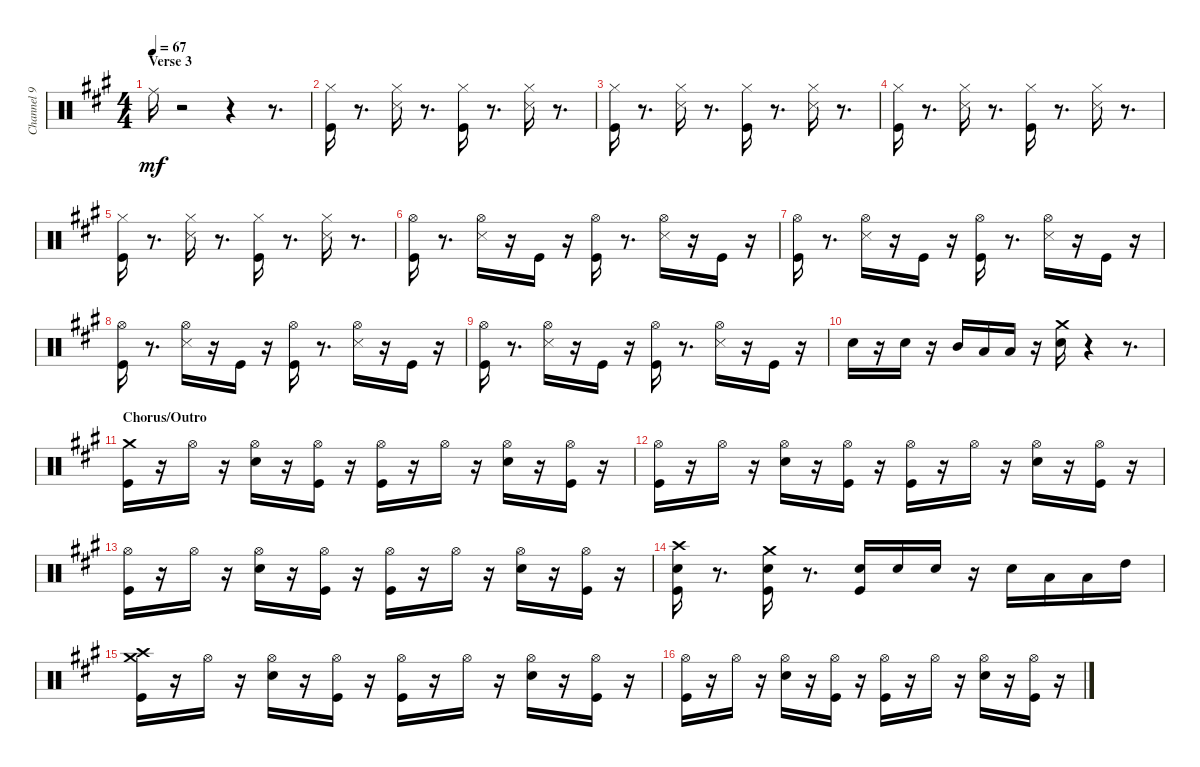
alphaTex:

\track ("Channel 9" "Channel 9") {instrument percussion}
\staff {score}
\articulation defaults
\ts (4 4)
\section ("" "Verse 3")
\tempo 67
\clef neutral
\ks f#minor "Ride (middle)".16{dy mf}
r.2 r.4 r.8{d} |
("Kick (hit)" "Hi-Hat (closed)").16 r.8{d} ("Snare (side stick) 3" "Hi-Hat (closed)").16 r.8{d} ("Kick (hit)" "Hi-Hat (closed)").16 r.8{d} ("Snare (side stick) 3" "Hi-Hat (closed)").16 r.8{d} |
("Kick (hit)" "Hi-Hat (closed)").16 r.8{d} ("Snare (side stick) 3" "Hi-Hat (closed)").16 r.8{d} ("Kick (hit)" "Hi-Hat (closed)").16 r.8{d} ("Snare (side stick) 3" "Hi-Hat (closed)").16 r.8{d} |
("Kick (hit)" "Hi-Hat (closed)").16 r.8{d} ("Snare (side stick) 3" "Hi-Hat (closed)").16 r.8{d} ("Kick (hit)" "Hi-Hat (closed)").16 r.8{d} ("Snare (side stick) 3" "Hi-Hat (closed)").16 r.8{d} |
("Kick (hit)" "Hi-Hat (closed)").16 r.8{d} ("Snare (side stick) 3" "Hi-Hat (closed)").16 r.8{d} ("Kick (hit)" "Hi-Hat (closed)").16 r.8{d} ("Snare (side stick) 3" "Hi-Hat (closed)").16 r.8{d} |
("Kick (hit)" "Hi-Hat (open)").16 r.8{d} ("Snare (side stick) 3" "Hi-Hat (open)").16 r.16 "Kick (hit)".16 r.16 ("Kick (hit)" "Hi-Hat (open)").16 r.8{d} ("Snare (side stick) 3" "Hi-Hat (open)").16 r.16 "Kick (hit)".16 r.16 |
("Kick (hit)" "Hi-Hat (open)").16 r.8{d} ("Snare (side stick) 3" "Hi-Hat (open)").16 r.16 "Kick (hit)".16 r.16 ("Kick (hit)" "Hi-Hat (open)").16 r.8{d} ("Snare (side stick) 3" "Hi-Hat (open)").16 r.16 "Kick (hit)".16 r.16 |
("Kick (hit)" "Hi-Hat (open)").16 r.8{d} ("Snare (side stick) 3" "Hi-Hat (open)").16 r.16 "Kick (hit)".16 r.16 ("Kick (hit)" "Hi-Hat (open)").16 r.8{d} ("Snare (side stick) 3" "Hi-Hat (open)").16 r.16 "Kick (hit)".16 r.16 |
("Kick (hit)" "Hi-Hat (open)").16 r.8{d} ("Snare (side stick) 3" "Hi-Hat (open)").16 r.16 "Kick (hit)".16 r.16 ("Kick (hit)" "Hi-Hat (open)").16 r.8{d} ("Snare (side stick) 3" "Hi-Hat (open)").16 r.16 "Kick (hit)".16 r.16 |
"Electric Snare (hit)".16 r.16 "Electric Snare (hit)".16 r.16 "Mid Tom (hit)".16 "Low Tom (hit)".16 "Low Tom (hit)".16 r.16 ("Electric Snare (hit)" "Crash medium (hit)").16 r.4 r.8{d} |
\section ("" "Chorus/Outro")
("Kick (hit)" "Crash medium (hit)").16 r.16 "Hi-Hat (open)".16 r.16 ("Electric Snare (hit)" "Hi-Hat (open)").16 r.16 ("Kick (hit)" "Hi-Hat (open)").16 r.16 ("Kick (hit)" "Hi-Hat (open)").16 r.16 "Hi-Hat (open)".16 r.16 ("Electric Snare (hit)" "Hi-Hat (open)").16 r.16 ("Kick (hit)" "Hi-Hat (open)").16 r.16 |
("Kick (hit)" "Hi-Hat (open)").16 r.16 "Hi-Hat (open)".16 r.16 ("Electric Snare (hit)" "Hi-Hat (open)").16 r.16 ("Kick (hit)" "Hi-Hat (open)").16 r.16 ("Kick (hit)" "Hi-Hat (open)").16 r.16 "Hi-Hat (open)".16 r.16 ("Electric Snare (hit)" "Hi-Hat (open)").16 r.16 ("Kick (hit)" "Hi-Hat (open)").16 r.16 |
("Kick (hit)" "Hi-Hat (open)").16 r.16 "Hi-Hat (open)".16 r.16 ("Electric Snare (hit)" "Hi-Hat (open)").16 r.16 ("Kick (hit)" "Hi-Hat (open)").16 r.16 ("Kick (hit)" "Hi-Hat (open)").16 r.16 "Hi-Hat (open)".16 r.16 ("Electric Snare (hit)" "Hi-Hat (open)").16 r.16 ("Kick (hit)" "Hi-Hat (open)").16 r.16 |
("Kick (hit)" "Electric Snare (hit)" "Crash high (hit)").16 r.8{d} ("Kick (hit)" "Electric Snare (hit)" "Crash medium (hit)").16 r.8{d} ("Kick (hit)" "Electric Snare (hit)").16 "Electric Snare (hit)".16 "Electric Snare (hit)".16 r.16 "Electric Snare (hit)".16 "Low Tom (hit)".16 "Low Floor Tom (hit)".16 "High Tom (hit)".16 |
("Kick (hit)" "Crash high (hit)" "Crash medium (hit)").16 r.16 "Hi-Hat (open)".16 r.16 ("Electric Snare (hit)" "Hi-Hat (open)").16 r.16 ("Kick (hit)" "Hi-Hat (open)").16 r.16 ("Kick (hit)" "Hi-Hat (open)").16 r.16 "Hi-Hat (open)".16 r.16 ("Electric Snare (hit)" "Hi-Hat (open)").16 r.16 ("Kick (hit)" "Hi-Hat (open)").16 r.16 |
("Kick (hit)" "Hi-Hat (open)").16 r.16 "Hi-Hat (open)".16 r.16 ("Electric Snare (hit)" "Hi-Hat (open)").16 r.16 ("Kick (hit)" "Hi-Hat (open)").16 r.16 ("Kick (hit)" "Hi-Hat (open)").16 r.16 "Hi-Hat (open)".16 r.16 ("Electric Snare (hit)" "Hi-Hat (open)").16 r.16 ("Kick (hit)" "Hi-Hat (open)").16 r.16
